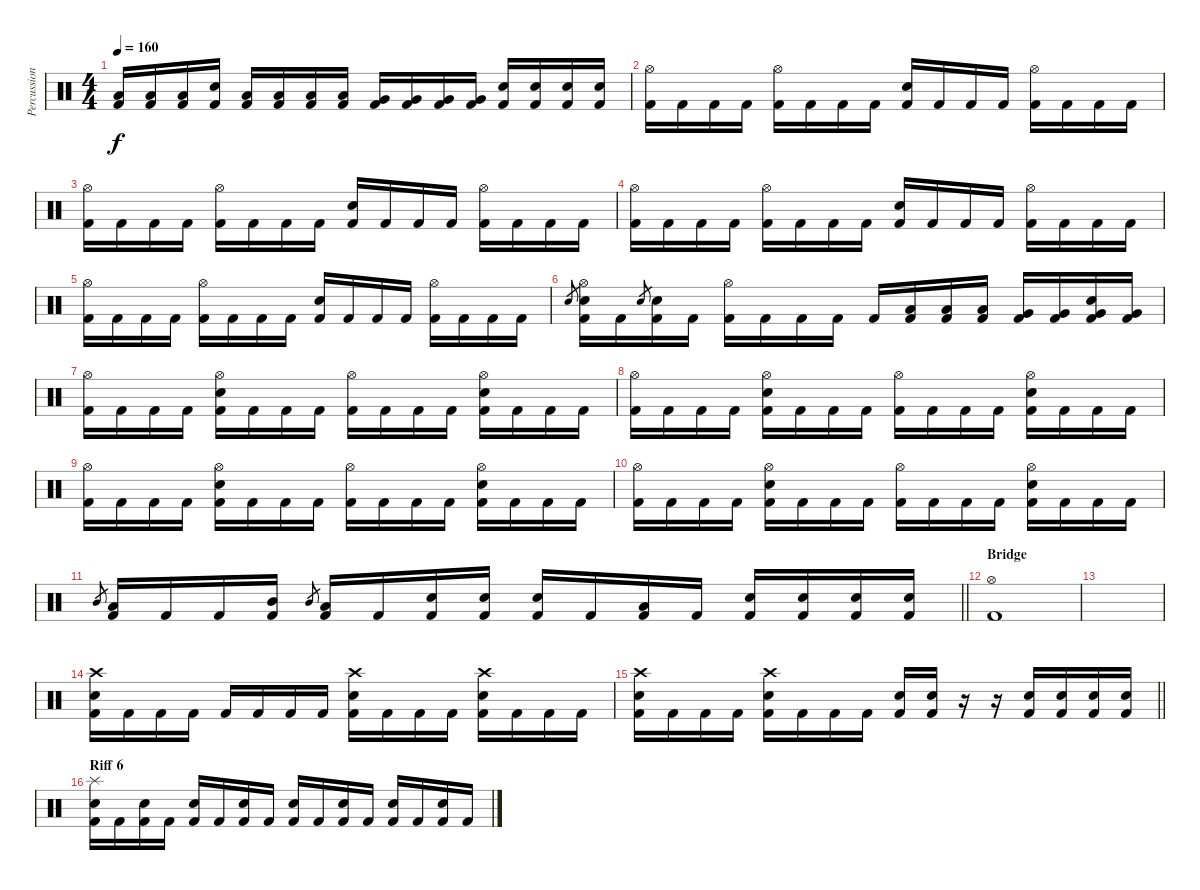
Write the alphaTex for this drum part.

\track ("Percussions" "Percussion") {instrument percussion bank 1}
\staff {score}
\articulation defaults
\ts (4 4)
\tempo 160
\clef neutral
\ks c
("Kick (hit) 2" "Low Floor Tom (hit)").16{dy f} ("Kick (hit) 2" "Low Floor Tom (hit)").16 ("Kick (hit) 2" "Low Floor Tom (hit)").16 ("Kick (hit) 2" "Snare (hit)").16 ("Kick (hit) 2" "Low Floor Tom (hit)").16 ("Kick (hit) 2" "Low Floor Tom (hit)").16 ("Kick (hit) 2" "Low Floor Tom (hit)").16 ("Kick (hit) 2" "Low Floor Tom (hit)").16 ("Kick (hit) 2" "Very Low Tom (hit)").16 ("Kick (hit) 2" "Very Low Tom (hit)").16 ("Kick (hit) 2" "Very Low Tom (hit)").16 ("Kick (hit) 2" "Very Low Tom (hit)").16 ("Kick (hit) 2" "Electric Snare (hit)").16 ("Kick (hit) 2" "Electric Snare (hit)").16 ("Kick (hit) 2" "Electric Snare (hit)").16 ("Kick (hit) 2" "Electric Snare (hit)").16 |
("Kick (hit) 2" "Hi-Hat (open)").16 "Kick (hit) 2".16 "Kick (hit) 2".16 "Kick (hit) 2".16 ("Kick (hit) 2" "Hi-Hat (open)").16 "Kick (hit) 2".16 "Kick (hit) 2".16 "Kick (hit) 2".16 ("Kick (hit) 2" "Electric Snare (hit)").16 "Kick (hit) 2".16 "Kick (hit) 2".16 "Kick (hit) 2".16 ("Kick (hit) 2" "Hi-Hat (open)").16 "Kick (hit) 2".16 "Kick (hit) 2".16 "Kick (hit) 2".16 |
("Kick (hit) 2" "Hi-Hat (open)").16 "Kick (hit) 2".16 "Kick (hit) 2".16 "Kick (hit) 2".16 ("Kick (hit) 2" "Hi-Hat (open)").16 "Kick (hit) 2".16 "Kick (hit) 2".16 "Kick (hit) 2".16 ("Kick (hit) 2" "Electric Snare (hit)").16 "Kick (hit) 2".16 "Kick (hit) 2".16 "Kick (hit) 2".16 ("Kick (hit) 2" "Hi-Hat (open)").16 "Kick (hit) 2".16 "Kick (hit) 2".16 "Kick (hit) 2".16 |
("Kick (hit) 2" "Hi-Hat (open)").16 "Kick (hit) 2".16 "Kick (hit) 2".16 "Kick (hit) 2".16 ("Kick (hit) 2" "Hi-Hat (open)").16 "Kick (hit) 2".16 "Kick (hit) 2".16 "Kick (hit) 2".16 ("Kick (hit) 2" "Electric Snare (hit)").16 "Kick (hit) 2".16 "Kick (hit) 2".16 "Kick (hit) 2".16 ("Kick (hit) 2" "Hi-Hat (open)").16 "Kick (hit) 2".16 "Kick (hit) 2".16 "Kick (hit) 2".16 |
("Kick (hit) 2" "Hi-Hat (open)").16 "Kick (hit) 2".16 "Kick (hit) 2".16 "Kick (hit) 2".16 ("Kick (hit) 2" "Hi-Hat (open)").16 "Kick (hit) 2".16 "Kick (hit) 2".16 "Kick (hit) 2".16 ("Kick (hit) 2" "Electric Snare (hit)").16 "Kick (hit) 2".16 "Kick (hit) 2".16 "Kick (hit) 2".16 ("Kick (hit) 2" "Hi-Hat (open)").16 "Kick (hit) 2".16 "Kick (hit) 2".16 "Kick (hit) 2".16 |
"Electric Snare (hit)".8{gr} ("Kick (hit) 2" "Electric Snare (hit)" "Hi-Hat (open)").16 "Kick (hit) 2".16 "Electric Snare (hit)".8{gr} ("Kick (hit) 2" "Electric Snare (hit)").16 "Kick (hit) 2".16 ("Kick (hit) 2" "Hi-Hat (open)").16 "Kick (hit) 2".16 "Kick (hit) 2".16 "Kick (hit) 2".16 "Kick (hit) 2".16 ("Kick (hit) 2" "Low Floor Tom (hit)").16 ("Kick (hit) 2" "Low Floor Tom (hit)").16 ("Kick (hit) 2" "Low Floor Tom (hit)").16 ("Kick (hit) 2" "Very Low Tom (hit)").16 ("Kick (hit) 2" "Very Low Tom (hit)").16 ("Kick (hit) 2" "Very Low Tom (hit)" "Electric Snare (hit)").16 ("Kick (hit) 2" "Very Low Tom (hit)").16 |
("Kick (hit) 2" "Hi-Hat (open)").16 "Kick (hit) 2".16 "Kick (hit) 2".16 "Kick (hit) 2".16 ("Kick (hit) 2" "Electric Snare (hit)" "Hi-Hat (open)").16 "Kick (hit) 2".16 "Kick (hit) 2".16 "Kick (hit) 2".16 ("Kick (hit) 2" "Hi-Hat (open)").16 "Kick (hit) 2".16 "Kick (hit) 2".16 "Kick (hit) 2".16 ("Kick (hit) 2" "Electric Snare (hit)" "Hi-Hat (open)").16 "Kick (hit) 2".16 "Kick (hit) 2".16 "Kick (hit) 2".16 |
("Kick (hit) 2" "Hi-Hat (open)").16 "Kick (hit) 2".16 "Kick (hit) 2".16 "Kick (hit) 2".16 ("Kick (hit) 2" "Electric Snare (hit)" "Hi-Hat (open)").16 "Kick (hit) 2".16 "Kick (hit) 2".16 "Kick (hit) 2".16 ("Kick (hit) 2" "Hi-Hat (open)").16 "Kick (hit) 2".16 "Kick (hit) 2".16 "Kick (hit) 2".16 ("Kick (hit) 2" "Electric Snare (hit)" "Hi-Hat (open)").16 "Kick (hit) 2".16 "Kick (hit) 2".16 "Kick (hit) 2".16 |
("Kick (hit) 2" "Hi-Hat (open)").16 "Kick (hit) 2".16 "Kick (hit) 2".16 "Kick (hit) 2".16 ("Kick (hit) 2" "Electric Snare (hit)" "Hi-Hat (open)").16 "Kick (hit) 2".16 "Kick (hit) 2".16 "Kick (hit) 2".16 ("Kick (hit) 2" "Hi-Hat (open)").16 "Kick (hit) 2".16 "Kick (hit) 2".16 "Kick (hit) 2".16 ("Kick (hit) 2" "Electric Snare (hit)" "Hi-Hat (open)").16 "Kick (hit) 2".16 "Kick (hit) 2".16 "Kick (hit) 2".16 |
("Kick (hit) 2" "Hi-Hat (open)").16 "Kick (hit) 2".16 "Kick (hit) 2".16 "Kick (hit) 2".16 ("Kick (hit) 2" "Electric Snare (hit)" "Hi-Hat (open)").16 "Kick (hit) 2".16 "Kick (hit) 2".16 "Kick (hit) 2".16 ("Kick (hit) 2" "Hi-Hat (open)").16 "Kick (hit) 2".16 "Kick (hit) 2".16 "Kick (hit) 2".16 ("Kick (hit) 2" "Electric Snare (hit)" "Hi-Hat (open)").16 "Kick (hit) 2".16 "Kick (hit) 2".16 "Kick (hit) 2".16 |
\barLineRight lightlight "Mid Tom (hit)".8{gr}
("Kick (hit) 2" "Low Tom (hit)").16 "Kick (hit) 2".16 "Kick (hit) 2".16 ("Kick (hit) 2" "Mid Tom (hit)").16 "Mid Tom (hit)".8{gr} ("Kick (hit) 2" "Low Tom (hit)").16 "Kick (hit) 2".16 ("Kick (hit) 2" "Electric Snare (hit)").16 ("Kick (hit) 2" "Electric Snare (hit)").16 ("Kick (hit) 2" "Electric Snare (hit)").16 "Kick (hit) 2".16 ("Kick (hit) 2" "Low Tom (hit)").16 "Kick (hit) 2".16 ("Kick (hit) 2" "Electric Snare (hit)").16 ("Kick (hit) 2" "Electric Snare (hit)").16 ("Kick (hit) 2" "Electric Snare (hit)").16 ("Kick (hit) 2" "Electric Snare (hit)").16 |
\section ("" "Bridge")
("Kick (hit) 2" "Hi-Hat (open)").1 |
|
("Kick (hit) 2" "Electric Snare (hit)" "Crash high (hit)").16 "Kick (hit) 2".16 "Kick (hit) 2".16 "Kick (hit) 2".16 "Kick (hit) 2".16 "Kick (hit) 2".16 "Kick (hit) 2".16 "Kick (hit) 2".16 ("Kick (hit) 2" "Electric Snare (hit)" "Crash high (hit)").16 "Kick (hit) 2".16 "Kick (hit) 2".16 "Kick (hit) 2".16 ("Kick (hit) 2" "Electric Snare (hit)" "Crash high (hit)").16 "Kick (hit) 2".16 "Kick (hit) 2".16 "Kick (hit) 2".16 |
\barLineRight lightlight
("Kick (hit) 2" "Electric Snare (hit)" "Crash high (hit)").16 "Kick (hit) 2".16 "Kick (hit) 2".16 "Kick (hit) 2".16 ("Kick (hit) 2" "Electric Snare (hit)" "Crash high (hit)").16 "Kick (hit) 2".16 "Kick (hit) 2".16 "Kick (hit) 2".16 ("Kick (hit) 2" "Electric Snare (hit)").16 ("Kick (hit) 2" "Electric Snare (hit)").16 r.16 r.16 ("Kick (hit) 2" "Electric Snare (hit)").16 ("Kick (hit) 2" "Electric Snare (hit)").16 ("Kick (hit) 2" "Electric Snare (hit)").16 ("Kick (hit) 2" "Electric Snare (hit)").16 |
\section ("" "Riff 6")
("Kick (hit) 2" "Electric Snare (hit)" "Splash (hit)").16 "Kick (hit) 2".16 ("Kick (hit) 2" "Electric Snare (hit)").16 "Kick (hit) 2".16 ("Kick (hit) 2" "Electric Snare (hit)").16 "Kick (hit) 2".16 ("Kick (hit) 2" "Electric Snare (hit)").16 "Kick (hit) 2".16 ("Kick (hit) 2" "Electric Snare (hit)").16 "Kick (hit) 2".16 ("Kick (hit) 2" "Electric Snare (hit)").16 "Kick (hit) 2".16 ("Kick (hit) 2" "Electric Snare (hit)").16 "Kick (hit) 2".16 ("Kick (hit) 2" "Electric Snare (hit)").16 "Kick (hit) 2".16
